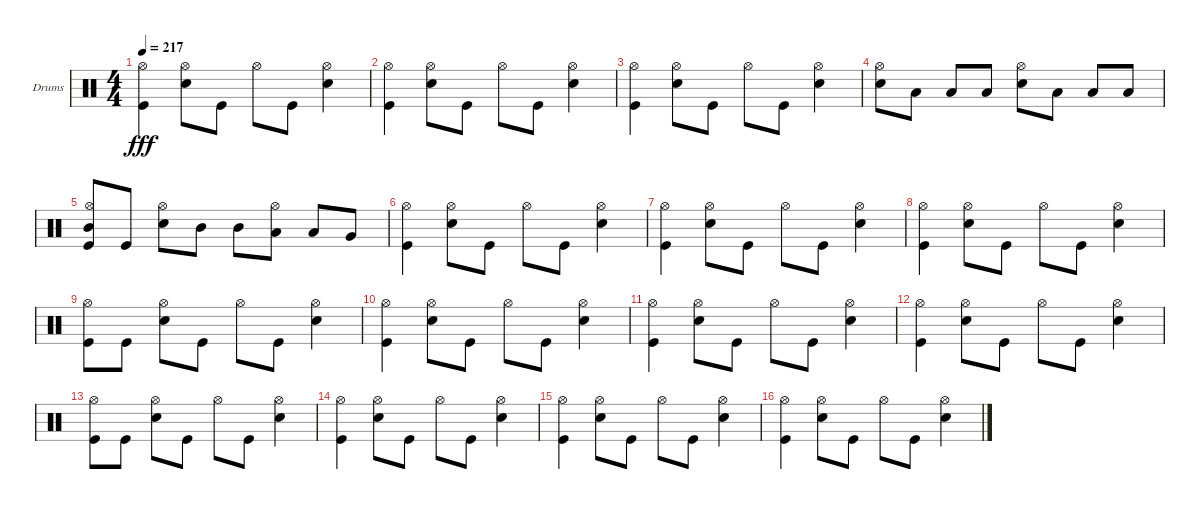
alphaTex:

\bracketExtendMode groupsimilarinstruments
\firstSystemTrackNameOrientation horizontal
\otherSystemsTrackNameOrientation horizontal
\track ("Drumkit" "Drums") {instrument percussion}
\staff {score}
\articulation defaults
\ts (4 4)
\tempo 217
\clef neutral
\ks c
("Kick (hit)" "Hi-Hat (open)").4{dy fff} ("Hi-Hat (open)" "Snare (hit) 2").8 "Kick (hit)".8 "Hi-Hat (open)".8 "Kick (hit)".8 ("Snare (hit) 2" "Hi-Hat (open)").4 |
("Kick (hit)" "Hi-Hat (open)").4 ("Hi-Hat (open)" "Snare (hit) 2").8 "Kick (hit)".8 "Hi-Hat (open)".8 "Kick (hit)".8 ("Snare (hit) 2" "Hi-Hat (open)").4 |
("Kick (hit)" "Hi-Hat (open)").4 ("Hi-Hat (open)" "Snare (hit) 2").8 "Kick (hit)".8 "Hi-Hat (open)".8 "Kick (hit)".8 ("Snare (hit) 2" "Hi-Hat (open)").4 |
("Snare (hit) 2" "Hi-Hat (open)").8 "Low Tom (hit)".8 "Low Tom (hit)".8 "Low Tom (hit)".8 ("Snare (hit) 2" "Hi-Hat (open)").8 "Low Tom (hit)".8 "Low Tom (hit)".8 "Low Tom (hit)".8 |
("Mid Tom (hit)" "Kick (hit)" "Hi-Hat (open)").8 "Kick (hit)".8 ("Snare (hit) 2" "Hi-Hat (open)").8 "Mid Tom (hit)".8 "Mid Tom (hit)".8 ("Low Tom (hit)" "Hi-Hat (open)").8 "Low Tom (hit)".8 "Very Low Tom (hit)".8 |
("Kick (hit)" "Hi-Hat (open)").4 ("Hi-Hat (open)" "Snare (hit) 2").8 "Kick (hit)".8 "Hi-Hat (open)".8 "Kick (hit)".8 ("Snare (hit) 2" "Hi-Hat (open)").4 |
("Kick (hit)" "Hi-Hat (open)").4 ("Hi-Hat (open)" "Snare (hit) 2").8 "Kick (hit)".8 "Hi-Hat (open)".8 "Kick (hit)".8 ("Snare (hit) 2" "Hi-Hat (open)").4 |
("Kick (hit)" "Hi-Hat (open)").4 ("Hi-Hat (open)" "Snare (hit) 2").8 "Kick (hit)".8 "Hi-Hat (open)".8 "Kick (hit)".8 ("Snare (hit) 2" "Hi-Hat (open)").4 |
("Kick (hit)" "Hi-Hat (open)").8 "Kick (hit)".8 ("Snare (hit) 2" "Hi-Hat (open)").8 "Kick (hit)".8 "Hi-Hat (open)".8 "Kick (hit)".8 ("Snare (hit) 2" "Hi-Hat (open)").4 |
("Kick (hit)" "Hi-Hat (open)").4 ("Hi-Hat (open)" "Snare (hit) 2").8 "Kick (hit)".8 "Hi-Hat (open)".8 "Kick (hit)".8 ("Snare (hit) 2" "Hi-Hat (open)").4 |
("Kick (hit)" "Hi-Hat (open)").4 ("Hi-Hat (open)" "Snare (hit) 2").8 "Kick (hit)".8 "Hi-Hat (open)".8 "Kick (hit)".8 ("Snare (hit) 2" "Hi-Hat (open)").4 |
("Kick (hit)" "Hi-Hat (open)").4 ("Hi-Hat (open)" "Snare (hit) 2").8 "Kick (hit)".8 "Hi-Hat (open)".8 "Kick (hit)".8 ("Snare (hit) 2" "Hi-Hat (open)").4 |
("Kick (hit)" "Hi-Hat (open)").8 "Kick (hit)".8 ("Snare (hit) 2" "Hi-Hat (open)").8 "Kick (hit)".8 "Hi-Hat (open)".8 "Kick (hit)".8 ("Snare (hit) 2" "Hi-Hat (open)").4 |
("Kick (hit)" "Hi-Hat (open)").4 ("Hi-Hat (open)" "Snare (hit) 2").8 "Kick (hit)".8 "Hi-Hat (open)".8 "Kick (hit)".8 ("Snare (hit) 2" "Hi-Hat (open)").4 |
("Kick (hit)" "Hi-Hat (open)").4 ("Hi-Hat (open)" "Snare (hit) 2").8 "Kick (hit)".8 "Hi-Hat (open)".8 "Kick (hit)".8 ("Snare (hit) 2" "Hi-Hat (open)").4 |
("Kick (hit)" "Hi-Hat (open)").4 ("Hi-Hat (open)" "Snare (hit) 2").8 "Kick (hit)".8 "Hi-Hat (open)".8 "Kick (hit)".8 ("Snare (hit) 2" "Hi-Hat (open)").4
